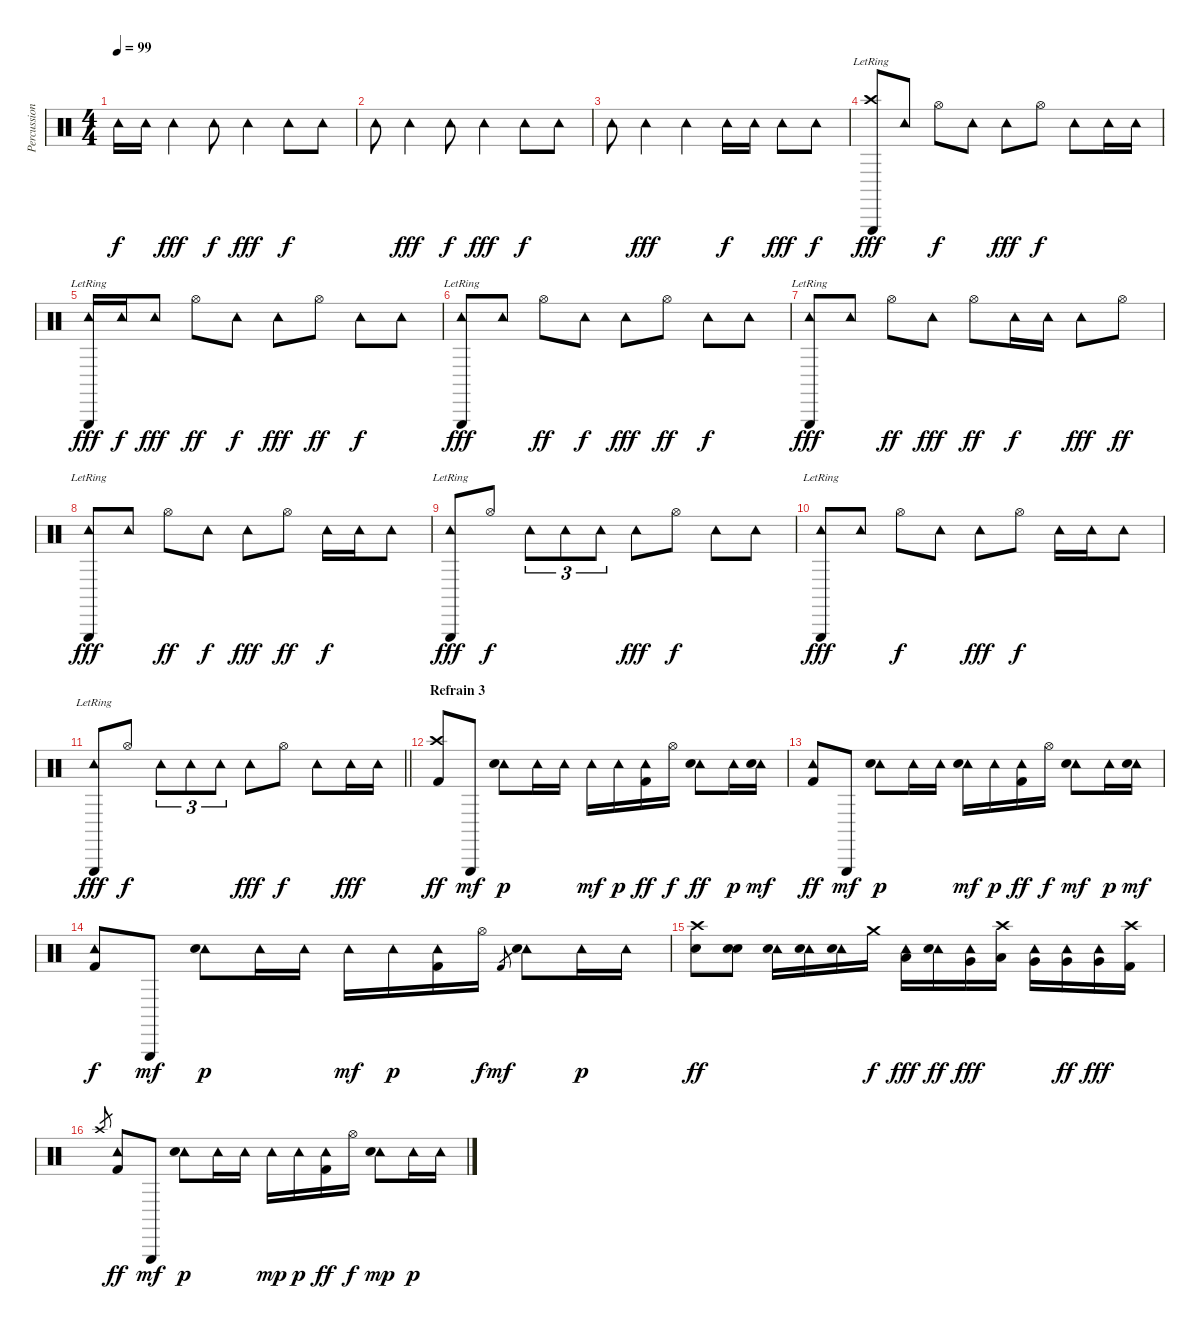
\track ("Percussion" "Percussion") {instrument percussion}
\staff {score}
\articulation defaults
\ts (4 4)
\tempo 99
\clef neutral
\ks c "Tambourine (hit)".16{dy f} "Tambourine (hit)".16 "Tambourine (hit)".4{dy fff} "Tambourine (hit)".8{dy f} "Tambourine (hit)".4{dy fff} "Tambourine (hit)".8{dy f} "Tambourine (hit)".8
|
"Tambourine (hit)".8 "Tambourine (hit)".4{dy fff} "Tambourine (hit)".8{dy f} "Tambourine (hit)".4{dy fff} "Tambourine (hit)".8{dy f} "Tambourine (hit)".8 |
"Tambourine (hit)".8 "Tambourine (hit)".4{dy fff} "Tambourine (hit)".4 "Tambourine (hit)".16{dy f} "Tambourine (hit)".16 "Tambourine (hit)".8{dy fff} "Tambourine (hit)".8{dy f} |
("Crash high (hit)" "Triangle (hit)"{lr}).8{dy fff} "Tambourine (hit)".8 "Hi-Hat (open)".8{dy f} "Tambourine (hit)".8 "Tambourine (hit)".8{dy fff} "Hi-Hat (open)".8{dy f} "Tambourine (hit)".8 "Tambourine (hit)".16 "Tambourine (hit)".16 |
("Tambourine (hit)" "Triangle (hit)"{lr}).16{dy fff} "Tambourine (hit)".16{dy f} "Tambourine (hit)".8{dy fff} "Hi-Hat (open)".8{dy ff} "Tambourine (hit)".8{dy f} "Tambourine (hit)".8{dy fff} "Hi-Hat (open)".8{dy ff} "Tambourine (hit)".8{dy f} "Tambourine (hit)".8 |
("Tambourine (hit)" "Triangle (hit)"{lr}).8{dy fff} "Tambourine (hit)".8 "Hi-Hat (open)".8{dy ff} "Tambourine (hit)".8{dy f} "Tambourine (hit)".8{dy fff} "Hi-Hat (open)".8{dy ff} "Tambourine (hit)".8{dy f} "Tambourine (hit)".8 |
("Tambourine (hit)" "Triangle (hit)"{lr}).8{dy fff} "Tambourine (hit)".8 "Hi-Hat (open)".8{dy ff} "Tambourine (hit)".8{dy fff} "Hi-Hat (open)".8{dy ff} "Tambourine (hit)".16{dy f} "Tambourine (hit)".16 "Tambourine (hit)".8{dy fff} "Hi-Hat (open)".8{dy ff} |
("Tambourine (hit)" "Triangle (hit)"{lr}).8{dy fff} "Tambourine (hit)".8 "Hi-Hat (open)".8{dy ff} "Tambourine (hit)".8{dy f} "Tambourine (hit)".8{dy fff} "Hi-Hat (open)".8{dy ff} "Tambourine (hit)".16{dy f} "Tambourine (hit)".16 "Tambourine (hit)".8 |
("Tambourine (hit)" "Triangle (hit)"{lr}).8{dy fff} "Hi-Hat (open)".8{dy f} "Tambourine (hit)".8{tu (3 2)} "Tambourine (hit)".8{tu (3 2)} "Tambourine (hit)".8{tu (3 2)} "Tambourine (hit)".8{dy fff} "Hi-Hat (open)".8{dy f} "Tambourine (hit)".8 "Tambourine (hit)".8 |
("Tambourine (hit)" "Triangle (hit)"{lr}).8{dy fff} "Tambourine (hit)".8 "Hi-Hat (open)".8{dy f} "Tambourine (hit)".8 "Tambourine (hit)".8{dy fff} "Hi-Hat (open)".8{dy f} "Tambourine (hit)".16 "Tambourine (hit)".16 "Tambourine (hit)".8 |
\barLineRight lightlight
("Tambourine (hit)" "Triangle (hit)"{lr}).8{dy fff} "Hi-Hat (open)".8{dy f} "Tambourine (hit)".8{tu (3 2)} "Tambourine (hit)".8{tu (3 2)} "Tambourine (hit)".8{tu (3 2)} "Tambourine (hit)".8{dy fff} "Hi-Hat (open)".8{dy f} "Tambourine (hit)".8 "Tambourine (hit)".16{dy fff} "Tambourine (hit)".16 |
\section ("" "Refrain 3")
("Crash high (hit)" "Kick (hit) 2").8{dy ff volume 9} "Triangle (hit)".8{dy mf} ("Tambourine (hit)" "Snare (hit) 2").8{dy p} "Tambourine (hit)".16 "Tambourine (hit)".16 "Tambourine (hit)".16{dy mf} "Tambourine (hit)".16{dy p} ("Tambourine (hit)" "Kick (hit) 2").16{dy ff} "Hi-Hat (open)".16{dy f} ("Tambourine (hit)" "Snare (hit) 2").8{dy ff} "Tambourine (hit)".16{dy p} ("Tambourine (hit)" "Electric Snare (hit)").16{dy mf} |
("Tambourine (hit)" "Kick (hit) 2").8{dy ff} "Triangle (hit)".8{dy mf} ("Tambourine (hit)" "Snare (hit) 2").8{dy p} "Tambourine (hit)".16 "Tambourine (hit)".16 ("Tambourine (hit)" "Snare (hit) 2").16{dy mf} "Tambourine (hit)".16{dy p} ("Tambourine (hit)" "Kick (hit) 2").16{dy ff} "Hi-Hat (open)".16{dy f} ("Tambourine (hit)" "Snare (hit) 2").8{dy mf} "Tambourine (hit)".16{dy p} ("Tambourine (hit)" "Electric Snare (hit)").16{dy mf} |
("Tambourine (hit)" "Kick (hit) 2").8{dy f} "Triangle (hit)".8{dy mf} ("Tambourine (hit)" "Snare (hit) 2").8{dy p} "Tambourine (hit)".16 "Tambourine (hit)".16 "Tambourine (hit)".16{dy mf} "Tambourine (hit)".16{dy p} ("Tambourine (hit)" "Kick (hit) 2").16 "Hi-Hat (open)".16{dy f} "Kick (hit) 2".8{gr dy mf} ("Tambourine (hit)" "Snare (hit) 2").8 "Tambourine (hit)".16{dy p} "Tambourine (hit)".16 |
("Crash high (hit)" "Snare (hit) 2").8{dy ff} ("Metronome (bell)" "Electric Snare (hit)").8 ("Tambourine (hit)" "Electric Snare (hit)").16 ("Tambourine (hit)" "Electric Snare (hit)").16 ("Tambourine (hit)" "Electric Snare (hit)").16 "Crash medium (hit)".16{dy f} ("Tambourine (hit)" "Low Tom (hit)").16{dy fff} ("Tambourine (hit)" "Electric Snare (hit)").16{dy ff} ("Tambourine (hit)" "Very Low Tom (hit)").16{dy fff} ("Crash high (hit)"{pm} "Low Tom (hit)").16 ("Tambourine (hit)" "Very Low Tom (hit)").16{volume 16} ("Tambourine (hit)" "Very Low Tom (hit)").16{dy ff} ("Tambourine (hit)" "Very Low Tom (hit)").16{dy fff} ("Crash high (hit)" "Kick (hit) 2").16 |
"Crash high (hit)".8{gr} ("Tambourine (hit)" "Kick (hit) 2").8{dy ff volume 9} "Triangle (hit)".8{dy mf} ("Tambourine (hit)" "Snare (hit) 2").8{dy p} "Tambourine (hit)".16 "Tambourine (hit)".16 "Tambourine (hit)".16{dy mp} "Tambourine (hit)".16{dy p} ("Tambourine (hit)" "Kick (hit) 2").16{dy ff} "Hi-Hat (open)".16{dy f} ("Tambourine (hit)" "Snare (hit) 2").8{dy mp} "Tambourine (hit)".16{dy p} "Tambourine (hit)".16
